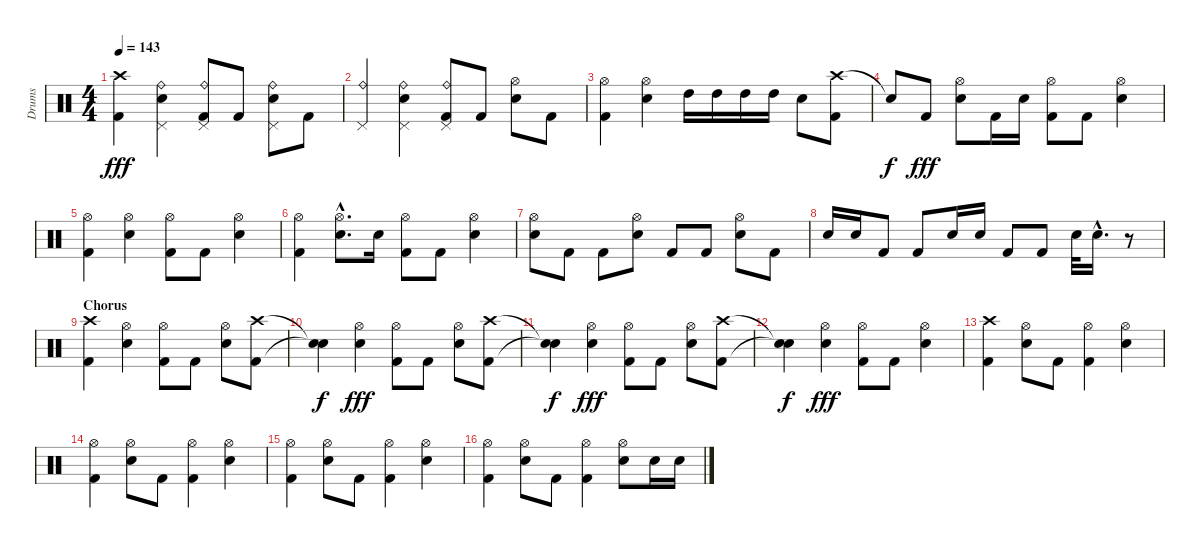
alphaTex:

\track ("Drums" "Drums") {instrument percussion}
\staff {score}
\articulation defaults
\ts (4 4)
\tempo 143
\clef neutral
\ks c
("Crash high (hit)" "Kick (hit) 2").4{dy fff} ("Ride (bell)" "Pedal Hi-Hat (hit)" "Snare (hit) 2").4 ("Ride (bell)" "Pedal Hi-Hat (hit)" "Kick (hit) 2").8 "Kick (hit) 2".8 ("Ride (bell)" "Pedal Hi-Hat (hit)" "Snare (hit) 2").8 "Kick (hit) 2".8 |
("Ride (bell)" "Pedal Hi-Hat (hit)").4 ("Ride (bell)" "Pedal Hi-Hat (hit)" "Snare (hit) 2").4 ("Ride (bell)" "Pedal Hi-Hat (hit)" "Kick (hit) 2").8 "Kick (hit) 2".8 ("Hi-Hat (open)" "Snare (hit) 2").8 "Kick (hit) 2".8 |
("Hi-Hat (open)" "Kick (hit) 2").4 ("Hi-Hat (open)" "Snare (hit) 2").4 "High Tom (hit)".16 "High Tom (hit)".16 "High Tom (hit)".16 "High Tom (hit)".16 "Snare (hit) 2".8 ("Crash high (hit)" "Kick (hit) 2").8 |
"Snare (hit)"{t}.8{dy f} "Kick (hit) 2".8{dy fff} ("Hi-Hat (open)" "Snare (hit) 2").8 "Kick (hit) 2".16 "Snare (hit) 2".16 ("Hi-Hat (open)" "Kick (hit) 2").8 "Kick (hit) 2".8 ("Hi-Hat (open)" "Snare (hit) 2").4 |
("Hi-Hat (open)" "Kick (hit) 2").4 ("Hi-Hat (open)" "Snare (hit) 2").4 ("Hi-Hat (open)" "Kick (hit) 2").8 "Kick (hit) 2".8 ("Hi-Hat (open)" "Snare (hit) 2").4 |
("Hi-Hat (open)" "Kick (hit) 2").4 ("Hi-Hat (open)"{hac} "Snare (hit) 2"{hac}).8{d} "Snare (hit) 2".16 ("Hi-Hat (open)" "Kick (hit) 2").8 "Kick (hit) 2".8 ("Hi-Hat (open)" "Snare (hit) 2").4 |
("Hi-Hat (open)" "Snare (hit) 2").8 "Kick (hit) 2".8 "Kick (hit) 2".8 ("Hi-Hat (open)" "Snare (hit) 2").8 "Kick (hit) 2".8 "Kick (hit) 2".8 ("Hi-Hat (open)" "Snare (hit) 2").8 "Kick (hit) 2".8 |
"Snare (hit) 2".16 "Snare (hit) 2".16 "Kick (hit) 2".8 "Kick (hit) 2".8 "Snare (hit) 2".16 "Snare (hit) 2".16 "Kick (hit) 2".8 "Kick (hit) 2".8 "Snare (hit) 2".32 "Snare (hit) 2"{hac}.16{d} r.8 |
\section ("" "Chorus")
("Crash high (hit)" "Kick (hit) 2").4 ("Hi-Hat (open)" "Snare (hit) 2").4 ("Hi-Hat (open)" "Kick (hit) 2").8 "Kick (hit) 2".8 ("Hi-Hat (open)" "Snare (hit) 2").8 ("Crash high (hit)" "Kick (hit) 2").8 |
("Snare (hit)"{t} "Snare (hit)"{t}).4{dy f} ("Hi-Hat (open)" "Snare (hit) 2").4{dy fff} ("Hi-Hat (open)" "Kick (hit) 2").8 "Kick (hit) 2".8 ("Hi-Hat (open)" "Snare (hit) 2").8 ("Crash high (hit)" "Kick (hit) 2").8 |
("Snare (hit)"{t} "Snare (hit)"{t}).4{dy f} ("Hi-Hat (open)" "Snare (hit) 2").4{dy fff} ("Hi-Hat (open)" "Kick (hit) 2").8 "Kick (hit) 2".8 ("Hi-Hat (open)" "Snare (hit) 2").8 ("Crash high (hit)" "Kick (hit) 2").8 |
("Snare (hit)"{t} "Snare (hit)"{t}).4{dy f} ("Hi-Hat (open)" "Snare (hit) 2").4{dy fff} ("Hi-Hat (open)" "Kick (hit) 2").8 "Kick (hit) 2".8 ("Hi-Hat (open)" "Snare (hit) 2").4 |
("Crash high (hit)" "Kick (hit) 2").4 ("Hi-Hat (open)" "Snare (hit) 2").8 "Kick (hit) 2".8 ("Hi-Hat (open)" "Kick (hit) 2").4 ("Hi-Hat (open)" "Snare (hit) 2").4 |
("Hi-Hat (open)" "Kick (hit) 2").4 ("Hi-Hat (open)" "Snare (hit) 2").8 "Kick (hit) 2".8 ("Hi-Hat (open)" "Kick (hit) 2").4 ("Hi-Hat (open)" "Snare (hit) 2").4 |
("Hi-Hat (open)" "Kick (hit) 2").4 ("Hi-Hat (open)" "Snare (hit) 2").8 "Kick (hit) 2".8 ("Hi-Hat (open)" "Kick (hit) 2").4 ("Hi-Hat (open)" "Snare (hit) 2").4 |
("Hi-Hat (open)" "Kick (hit) 2").4 ("Hi-Hat (open)" "Snare (hit) 2").8 "Kick (hit) 2".8 ("Hi-Hat (open)" "Kick (hit) 2").4 ("Hi-Hat (open)" "Snare (hit) 2").8 "Snare (hit) 2".16 "Snare (hit) 2".16
